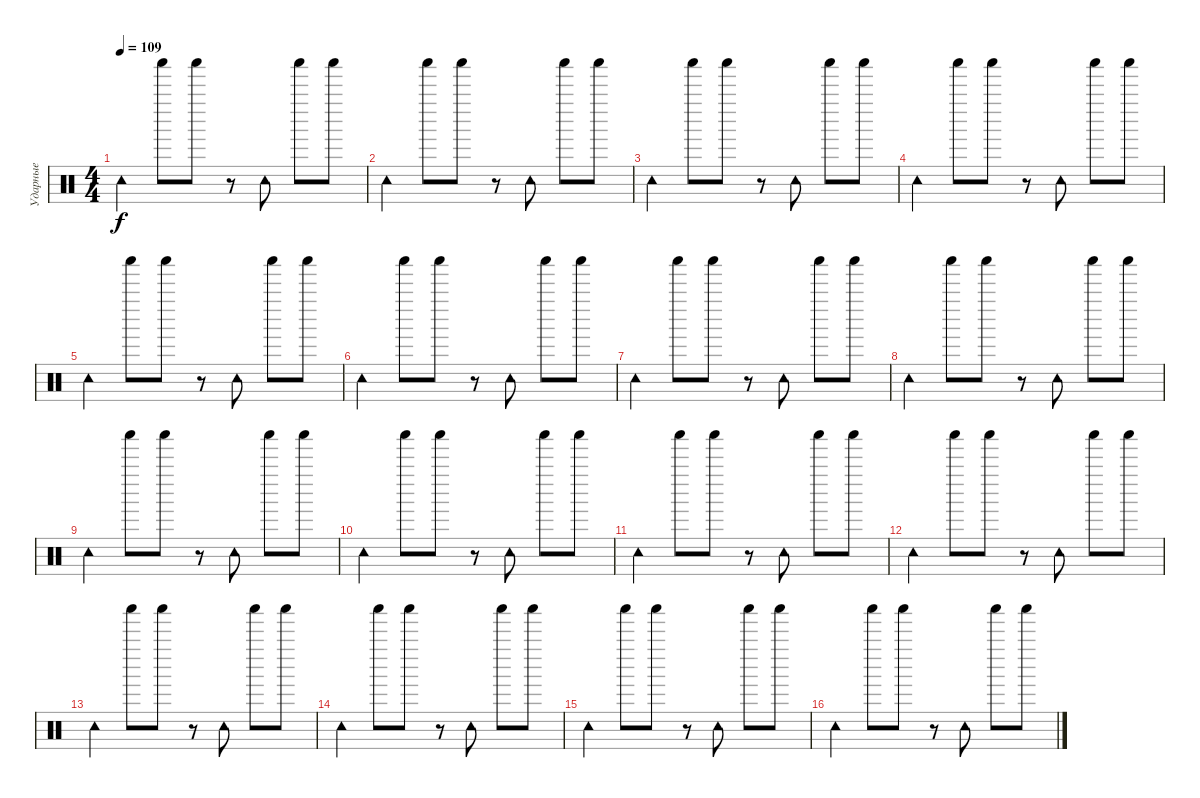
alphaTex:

\track ("Ударные" "Ударные") {instrument percussion}
\staff {score}
\articulation defaults
\ts (4 4)
\tempo 109
\clef neutral
\ks c "Tambourine (hit)".4{dy f} "Shaker (hit)".8 "Shaker (hit)".8
r.8 "Tambourine (hit)".8 "Shaker (hit)".8 "Shaker (hit)".8 |
"Tambourine (hit)".4 "Shaker (hit)".8 "Shaker (hit)".8 r.8 "Tambourine (hit)".8 "Shaker (hit)".8 "Shaker (hit)".8 |
"Tambourine (hit)".4 "Shaker (hit)".8 "Shaker (hit)".8 r.8 "Tambourine (hit)".8 "Shaker (hit)".8 "Shaker (hit)".8 |
"Tambourine (hit)".4 "Shaker (hit)".8 "Shaker (hit)".8 r.8 "Tambourine (hit)".8 "Shaker (hit)".8 "Shaker (hit)".8 |
"Tambourine (hit)".4 "Shaker (hit)".8 "Shaker (hit)".8 r.8 "Tambourine (hit)".8 "Shaker (hit)".8 "Shaker (hit)".8 |
"Tambourine (hit)".4 "Shaker (hit)".8 "Shaker (hit)".8 r.8 "Tambourine (hit)".8 "Shaker (hit)".8 "Shaker (hit)".8 |
"Tambourine (hit)".4 "Shaker (hit)".8 "Shaker (hit)".8 r.8 "Tambourine (hit)".8 "Shaker (hit)".8 "Shaker (hit)".8 |
"Tambourine (hit)".4 "Shaker (hit)".8 "Shaker (hit)".8 r.8 "Tambourine (hit)".8 "Shaker (hit)".8 "Shaker (hit)".8 |
"Tambourine (hit)".4 "Shaker (hit)".8 "Shaker (hit)".8 r.8 "Tambourine (hit)".8 "Shaker (hit)".8 "Shaker (hit)".8 |
"Tambourine (hit)".4 "Shaker (hit)".8 "Shaker (hit)".8 r.8 "Tambourine (hit)".8 "Shaker (hit)".8 "Shaker (hit)".8 |
"Tambourine (hit)".4 "Shaker (hit)".8 "Shaker (hit)".8 r.8 "Tambourine (hit)".8 "Shaker (hit)".8 "Shaker (hit)".8 |
"Tambourine (hit)".4 "Shaker (hit)".8 "Shaker (hit)".8 r.8 "Tambourine (hit)".8 "Shaker (hit)".8 "Shaker (hit)".8 |
"Tambourine (hit)".4 "Shaker (hit)".8 "Shaker (hit)".8 r.8 "Tambourine (hit)".8 "Shaker (hit)".8 "Shaker (hit)".8 |
"Tambourine (hit)".4 "Shaker (hit)".8 "Shaker (hit)".8 r.8 "Tambourine (hit)".8 "Shaker (hit)".8 "Shaker (hit)".8 |
"Tambourine (hit)".4 "Shaker (hit)".8 "Shaker (hit)".8 r.8 "Tambourine (hit)".8 "Shaker (hit)".8 "Shaker (hit)".8 |
"Tambourine (hit)".4 "Shaker (hit)".8 "Shaker (hit)".8 r.8 "Tambourine (hit)".8 "Shaker (hit)".8 "Shaker (hit)".8
